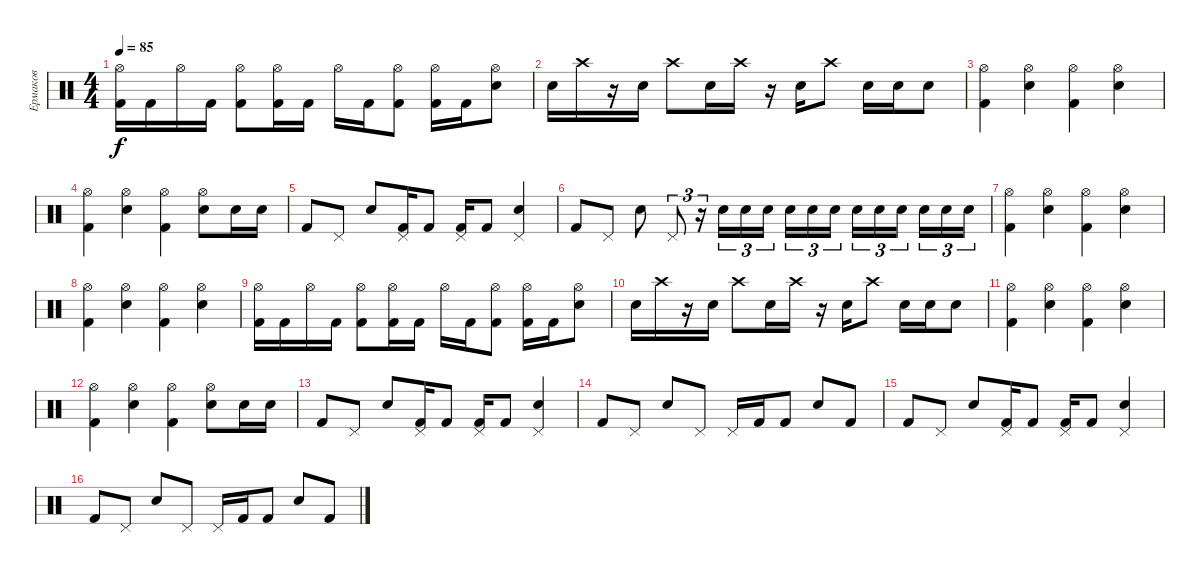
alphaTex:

\track ("Ермаков" "Ермаков") {instrument percussion}
\staff {score}
\articulation defaults
\ts (4 4)
\tempo 85
\clef neutral
\ks c
("Hi-Hat (open)" "Kick (hit) 2").16{dy f} "Kick (hit) 2".16 "Hi-Hat (open)".16 "Kick (hit) 2".16 ("Hi-Hat (open)" "Kick (hit) 2").8 ("Hi-Hat (open)" "Kick (hit) 2").16 "Kick (hit) 2".16 "Hi-Hat (open)".16 "Kick (hit) 2".16 ("Hi-Hat (open)" "Kick (hit) 2").8 ("Hi-Hat (open)" "Kick (hit) 2").16 "Kick (hit) 2".16 ("Hi-Hat (open)" "Snare (hit) 2").8 |
"Snare (hit) 2".16 "Crash high (hit)".16 r.16 "Snare (hit) 2".16 "Crash high (hit)".8 "Snare (hit) 2".16 "Crash high (hit)".16 r.16 "Snare (hit) 2".16 "Crash high (hit)".8 "Snare (hit) 2".16 "Snare (hit) 2".16 "Snare (hit) 2".8 |
("Hi-Hat (open)" "Kick (hit) 2").4 ("Hi-Hat (open)" "Snare (hit) 2").4 ("Hi-Hat (open)" "Kick (hit) 2").4 ("Hi-Hat (open)" "Snare (hit) 2").4 |
("Hi-Hat (open)" "Kick (hit) 2").4 ("Hi-Hat (open)" "Snare (hit) 2").4 ("Hi-Hat (open)" "Kick (hit) 2").4 ("Hi-Hat (open)" "Snare (hit) 2").8 "Snare (hit) 2".16 "Snare (hit) 2".16 |
"Kick (hit) 2".8 "Pedal Hi-Hat (hit)".8 "Electric Snare (hit)".8 ("Pedal Hi-Hat (hit)" "Kick (hit) 2").16 "Kick (hit) 2".8 ("Pedal Hi-Hat (hit)" "Kick (hit) 2").16 "Kick (hit) 2".8 ("Pedal Hi-Hat (hit)" "Snare (hit) 2").4 |
"Kick (hit) 2".8 "Pedal Hi-Hat (hit)".8 "Electric Snare (hit)".8 "Pedal Hi-Hat (hit)".8{tu (3 2)} r.16{tu (3 2)} "Snare (hit) 2".16{tu (3 2)} "Snare (hit) 2".16{tu (3 2)} "Snare (hit) 2".16{tu (3 2) beam splitsecondary} "Snare (hit) 2".16{tu (3 2)} "Snare (hit) 2".16{tu (3 2)} "Snare (hit) 2".16{tu (3 2)} "Snare (hit) 2".16{tu (3 2)} "Snare (hit) 2".16{tu (3 2)} "Snare (hit) 2".16{tu (3 2) beam splitsecondary} "Snare (hit) 2".16{tu (3 2)} "Snare (hit) 2".16{tu (3 2)} "Snare (hit) 2".16{tu (3 2)} |
("Hi-Hat (open)" "Kick (hit) 2").4 ("Hi-Hat (open)" "Snare (hit) 2").4 ("Hi-Hat (open)" "Kick (hit) 2").4 ("Hi-Hat (open)" "Snare (hit) 2").4 |
("Hi-Hat (open)" "Kick (hit) 2").4 ("Hi-Hat (open)" "Snare (hit) 2").4 ("Hi-Hat (open)" "Kick (hit) 2").4 ("Hi-Hat (open)" "Snare (hit) 2").4 |
("Hi-Hat (open)" "Kick (hit) 2").16 "Kick (hit) 2".16 "Hi-Hat (open)".16 "Kick (hit) 2".16 ("Hi-Hat (open)" "Kick (hit) 2").8 ("Hi-Hat (open)" "Kick (hit) 2").16 "Kick (hit) 2".16 "Hi-Hat (open)".16 "Kick (hit) 2".16 ("Hi-Hat (open)" "Kick (hit) 2").8 ("Hi-Hat (open)" "Kick (hit) 2").16 "Kick (hit) 2".16 ("Hi-Hat (open)" "Snare (hit) 2").8 |
"Snare (hit) 2".16 "Crash high (hit)".16 r.16 "Snare (hit) 2".16 "Crash high (hit)".8 "Snare (hit) 2".16 "Crash high (hit)".16 r.16 "Snare (hit) 2".16 "Crash high (hit)".8 "Snare (hit) 2".16 "Snare (hit) 2".16 "Snare (hit) 2".8 |
("Hi-Hat (open)" "Kick (hit) 2").4 ("Hi-Hat (open)" "Snare (hit) 2").4 ("Hi-Hat (open)" "Kick (hit) 2").4 ("Hi-Hat (open)" "Snare (hit) 2").4 |
("Hi-Hat (open)" "Kick (hit) 2").4 ("Hi-Hat (open)" "Snare (hit) 2").4 ("Hi-Hat (open)" "Kick (hit) 2").4 ("Hi-Hat (open)" "Snare (hit) 2").8 "Snare (hit) 2".16 "Snare (hit) 2".16 |
"Kick (hit) 2".8 "Pedal Hi-Hat (hit)".8 "Electric Snare (hit)".8 ("Pedal Hi-Hat (hit)" "Kick (hit) 2").16 "Kick (hit) 2".8 ("Pedal Hi-Hat (hit)" "Kick (hit) 2").16 "Kick (hit) 2".8 ("Pedal Hi-Hat (hit)" "Snare (hit) 2").4 |
"Kick (hit) 2".8 "Pedal Hi-Hat (hit)".8 "Electric Snare (hit)".8 "Pedal Hi-Hat (hit)".8 "Pedal Hi-Hat (hit)".16 "Kick (hit) 2".16 "Kick (hit) 2".8 "Snare (hit) 2".8 "Kick (hit) 2".8 |
"Kick (hit) 2".8 "Pedal Hi-Hat (hit)".8 "Electric Snare (hit)".8 ("Pedal Hi-Hat (hit)" "Kick (hit) 2").16 "Kick (hit) 2".8 ("Pedal Hi-Hat (hit)" "Kick (hit) 2").16 "Kick (hit) 2".8 ("Pedal Hi-Hat (hit)" "Snare (hit) 2").4 |
"Kick (hit) 2".8 "Pedal Hi-Hat (hit)".8 "Electric Snare (hit)".8 "Pedal Hi-Hat (hit)".8 "Pedal Hi-Hat (hit)".16 "Kick (hit) 2".16 "Kick (hit) 2".8 "Snare (hit) 2".8 "Kick (hit) 2".8
